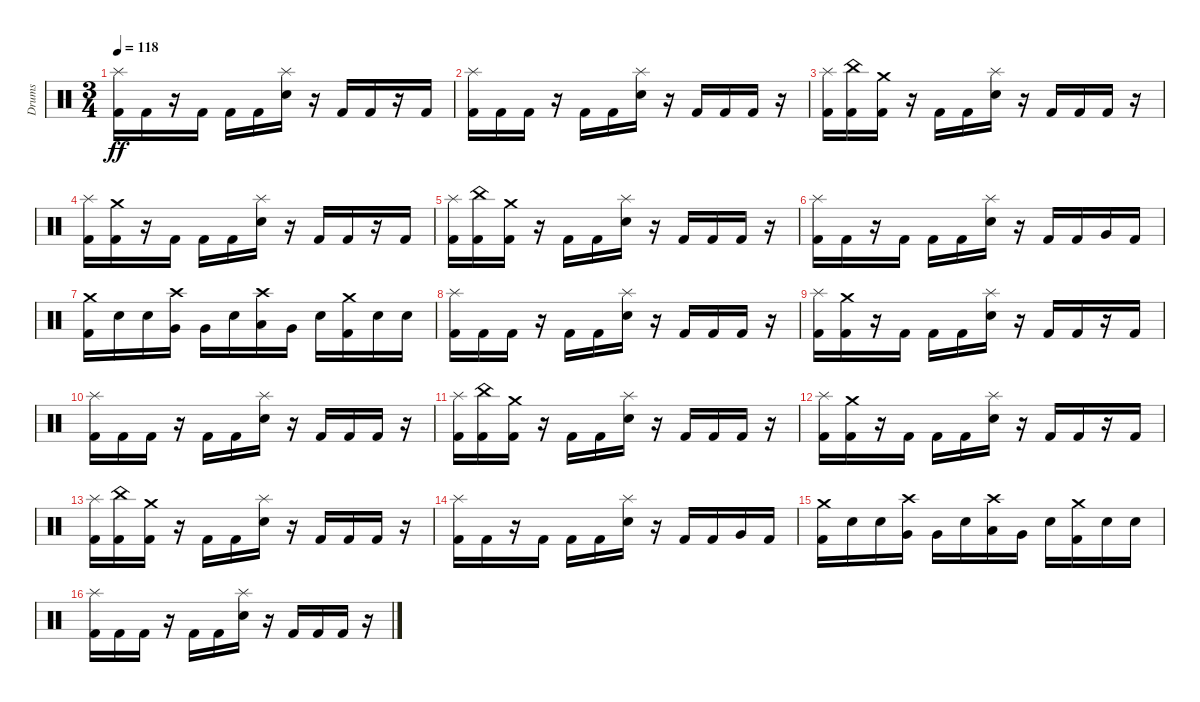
\track ("Drums" "Drums") {instrument percussion}
\staff {score}
\articulation defaults
\ts (3 4)
\tempo 118
\clef neutral
\ks c
("Splash (hit)" "Kick (hit) 2").16{dy ff} "Kick (hit) 2".16 r.16 "Kick (hit) 2".16 "Kick (hit) 2".16 "Kick (hit) 2".16 ("Splash (hit)" "Electric Snare (hit)").16 r.16 "Kick (hit) 2".16 "Kick (hit) 2".16 r.16 "Kick (hit) 2".16 |
("Splash (hit)" "Kick (hit) 2").16 "Kick (hit) 2".16 "Kick (hit) 2".16 r.16 "Kick (hit) 2".16 "Kick (hit) 2".16 ("Splash (hit)" "Electric Snare (hit)").16 r.16 "Kick (hit) 2".16 "Kick (hit) 2".16 "Kick (hit) 2".16 r.16 |
("Splash (hit)" "Kick (hit) 2").16 ("China (hit)" "Kick (hit) 2").16 ("Crash medium (hit)" "Kick (hit) 2").16 r.16 "Kick (hit) 2".16 "Kick (hit) 2".16 ("Splash (hit)" "Electric Snare (hit)").16 r.16 "Kick (hit) 2".16 "Kick (hit) 2".16 "Kick (hit) 2".16 r.16 |
("Splash (hit)" "Kick (hit) 2").16 ("Crash medium (hit)" "Kick (hit) 2").16 r.16 "Kick (hit) 2".16 "Kick (hit) 2".16 "Kick (hit) 2".16 ("Splash (hit)" "Electric Snare (hit)").16 r.16 "Kick (hit) 2".16 "Kick (hit) 2".16 r.16 "Kick (hit) 2".16 |
("Splash (hit)" "Kick (hit) 2").16 ("China (hit)" "Kick (hit) 2").16 ("Crash medium (hit)" "Kick (hit) 2").16 r.16 "Kick (hit) 2".16 "Kick (hit) 2".16 ("Splash (hit)" "Electric Snare (hit)").16 r.16 "Kick (hit) 2".16 "Kick (hit) 2".16 "Kick (hit) 2".16 r.16 |
("Splash (hit)" "Kick (hit) 2").16 "Kick (hit) 2".16 r.16 "Kick (hit) 2".16 "Kick (hit) 2".16 "Kick (hit) 2".16 ("Splash (hit)" "Electric Snare (hit)").16 r.16 "Kick (hit) 2".16 "Kick (hit) 2".16 "Very Low Tom (hit)".16 "Kick (hit) 2".16 |
("Crash medium (hit)" "Kick (hit) 2").16 "Electric Snare (hit)".16 "Electric Snare (hit)".16 ("Crash high (hit)" "Very Low Tom (hit)").16 "Very Low Tom (hit)".16 "Electric Snare (hit)".16 ("Crash high (hit)" "Low Floor Tom (hit)").16 "Very Low Tom (hit)".16 "Electric Snare (hit)".16 ("Crash medium (hit)" "Kick (hit) 2").16 "Electric Snare (hit)".16 "Electric Snare (hit)".16 |
("Splash (hit)" "Kick (hit) 2").16 "Kick (hit) 2".16 "Kick (hit) 2".16 r.16 "Kick (hit) 2".16 "Kick (hit) 2".16 ("Splash (hit)" "Electric Snare (hit)").16 r.16 "Kick (hit) 2".16 "Kick (hit) 2".16 "Kick (hit) 2".16 r.16 |
("Splash (hit)" "Kick (hit) 2").16 ("Crash medium (hit)" "Kick (hit) 2").16 r.16 "Kick (hit) 2".16 "Kick (hit) 2".16 "Kick (hit) 2".16 ("Splash (hit)" "Electric Snare (hit)").16 r.16 "Kick (hit) 2".16 "Kick (hit) 2".16 r.16 "Kick (hit) 2".16 |
("Splash (hit)" "Kick (hit) 2").16 "Kick (hit) 2".16 "Kick (hit) 2".16 r.16 "Kick (hit) 2".16 "Kick (hit) 2".16 ("Splash (hit)" "Electric Snare (hit)").16 r.16 "Kick (hit) 2".16 "Kick (hit) 2".16 "Kick (hit) 2".16 r.16 |
("Splash (hit)" "Kick (hit) 2").16 ("China (hit)" "Kick (hit) 2").16 ("Crash medium (hit)" "Kick (hit) 2").16 r.16 "Kick (hit) 2".16 "Kick (hit) 2".16 ("Splash (hit)" "Electric Snare (hit)").16 r.16 "Kick (hit) 2".16 "Kick (hit) 2".16 "Kick (hit) 2".16 r.16 |
("Splash (hit)" "Kick (hit) 2").16 ("Crash medium (hit)" "Kick (hit) 2").16 r.16 "Kick (hit) 2".16 "Kick (hit) 2".16 "Kick (hit) 2".16 ("Splash (hit)" "Electric Snare (hit)").16 r.16 "Kick (hit) 2".16 "Kick (hit) 2".16 r.16 "Kick (hit) 2".16 |
("Splash (hit)" "Kick (hit) 2").16 ("China (hit)" "Kick (hit) 2").16 ("Crash medium (hit)" "Kick (hit) 2").16 r.16 "Kick (hit) 2".16 "Kick (hit) 2".16 ("Splash (hit)" "Electric Snare (hit)").16 r.16 "Kick (hit) 2".16 "Kick (hit) 2".16 "Kick (hit) 2".16 r.16 |
("Splash (hit)" "Kick (hit) 2").16 "Kick (hit) 2".16 r.16 "Kick (hit) 2".16 "Kick (hit) 2".16 "Kick (hit) 2".16 ("Splash (hit)" "Electric Snare (hit)").16 r.16 "Kick (hit) 2".16 "Kick (hit) 2".16 "Very Low Tom (hit)".16 "Kick (hit) 2".16 |
("Crash medium (hit)" "Kick (hit) 2").16 "Electric Snare (hit)".16 "Electric Snare (hit)".16 ("Crash high (hit)" "Very Low Tom (hit)").16 "Very Low Tom (hit)".16 "Electric Snare (hit)".16 ("Crash high (hit)" "Low Floor Tom (hit)").16 "Very Low Tom (hit)".16 "Electric Snare (hit)".16 ("Crash medium (hit)" "Kick (hit) 2").16 "Electric Snare (hit)".16 "Electric Snare (hit)".16 |
("Splash (hit)" "Kick (hit) 2").16 "Kick (hit) 2".16 "Kick (hit) 2".16 r.16 "Kick (hit) 2".16 "Kick (hit) 2".16 ("Splash (hit)" "Electric Snare (hit)").16 r.16 "Kick (hit) 2".16 "Kick (hit) 2".16 "Kick (hit) 2".16 r.16
